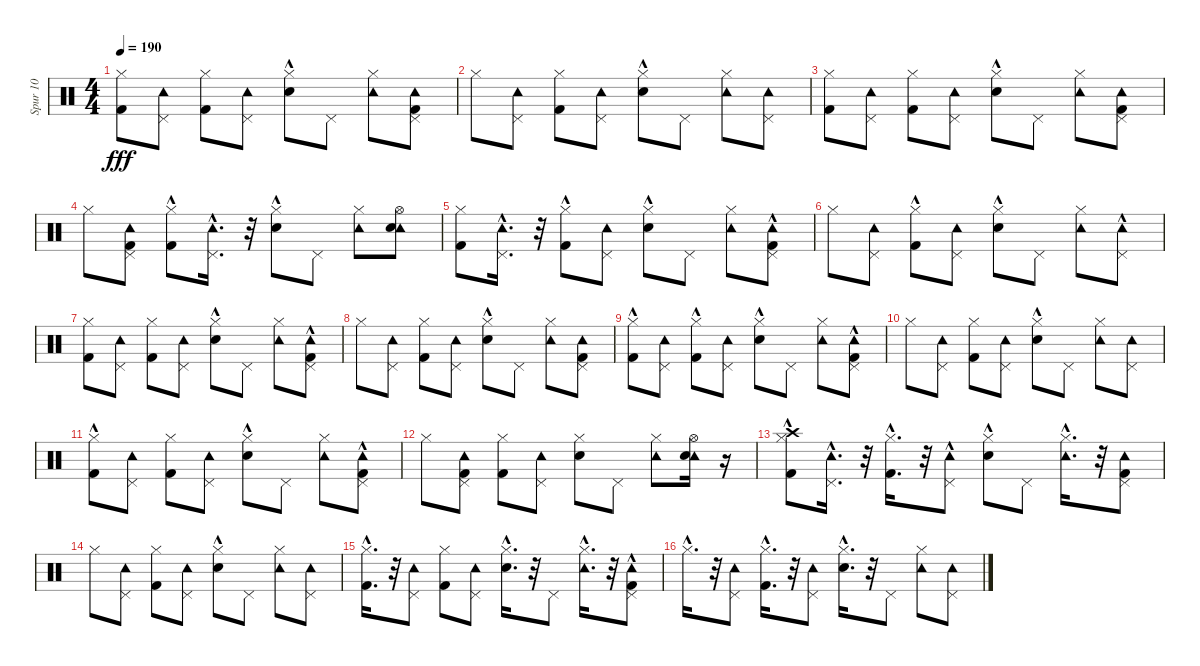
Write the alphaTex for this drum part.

\track ("Spur 10" "Spur 10") {instrument percussion}
\staff {score}
\articulation defaults
\ts (4 4)
\tempo 190
\clef neutral
\ks c
("Hi-Hat (closed)" "Kick (hit) 2").8{dy fff} ("Pedal Hi-Hat (hit)" "Tambourine (hit)").8 ("Hi-Hat (closed)" "Kick (hit) 2").8 ("Tambourine (hit)" "Pedal Hi-Hat (hit)").8 ("Hi-Hat (closed)" "Electric Snare (hit)"{hac}).8 "Pedal Hi-Hat (hit)".8 ("Tambourine (hit)" "Hi-Hat (closed)").8 ("Tambourine (hit)" "Pedal Hi-Hat (hit)" "Kick (hit) 2").8 |
"Hi-Hat (closed)".8 ("Tambourine (hit)" "Pedal Hi-Hat (hit)").8 ("Kick (hit) 2" "Hi-Hat (closed)").8 ("Pedal Hi-Hat (hit)" "Tambourine (hit)").8 ("Hi-Hat (closed)" "Electric Snare (hit)"{hac}).8 "Pedal Hi-Hat (hit)".8 ("Tambourine (hit)" "Hi-Hat (closed)").8 ("Tambourine (hit)" "Pedal Hi-Hat (hit)").8 |
("Hi-Hat (closed)" "Kick (hit) 2").8 ("Pedal Hi-Hat (hit)" "Tambourine (hit)").8 ("Kick (hit) 2" "Hi-Hat (closed)").8 ("Tambourine (hit)" "Pedal Hi-Hat (hit)").8 ("Hi-Hat (closed)" "Electric Snare (hit)"{hac}).8 "Pedal Hi-Hat (hit)".8 ("Tambourine (hit)" "Hi-Hat (closed)").8 ("Tambourine (hit)" "Pedal Hi-Hat (hit)" "Kick (hit) 2").8 |
"Hi-Hat (closed)".8 ("Tambourine (hit)" "Pedal Hi-Hat (hit)" "Kick (hit) 2").8 ("Hi-Hat (closed)" "Kick (hit) 2"{hac}).8 ("Pedal Hi-Hat (hit)"{hac} "Tambourine (hit)").16{d} r.32 ("Hi-Hat (closed)" "Electric Snare (hit)"{hac}).8 "Pedal Hi-Hat (hit)".8 ("Tambourine (hit)" "Hi-Hat (closed)").8 ("Tambourine (hit)" "Hi-Hat (open)" "Electric Snare (hit)").8 |
("Hi-Hat (closed)" "Kick (hit) 2").8 ("Tambourine (hit)" "Pedal Hi-Hat (hit)"{hac}).16{d} r.32 ("Kick (hit) 2"{hac} "Hi-Hat (closed)").8 ("Tambourine (hit)" "Pedal Hi-Hat (hit)").8 ("Hi-Hat (closed)" "Electric Snare (hit)"{hac}).8 "Pedal Hi-Hat (hit)".8 ("Tambourine (hit)" "Hi-Hat (closed)").8 ("Tambourine (hit)" "Pedal Hi-Hat (hit)" "Kick (hit) 2"{hac}).8 |
"Hi-Hat (closed)".8 ("Tambourine (hit)" "Pedal Hi-Hat (hit)").8 ("Hi-Hat (closed)" "Kick (hit) 2"{hac}).8 ("Pedal Hi-Hat (hit)" "Tambourine (hit)").8 ("Hi-Hat (closed)" "Electric Snare (hit)"{hac}).8 "Pedal Hi-Hat (hit)".8 ("Tambourine (hit)" "Hi-Hat (closed)").8 ("Tambourine (hit)"{hac} "Pedal Hi-Hat (hit)").8 |
("Hi-Hat (closed)" "Kick (hit) 2").8 ("Tambourine (hit)" "Pedal Hi-Hat (hit)").8 ("Hi-Hat (closed)" "Kick (hit) 2").8 ("Tambourine (hit)" "Pedal Hi-Hat (hit)").8 ("Hi-Hat (closed)" "Electric Snare (hit)"{hac}).8 "Pedal Hi-Hat (hit)".8 ("Tambourine (hit)" "Hi-Hat (closed)").8 ("Tambourine (hit)" "Pedal Hi-Hat (hit)" "Kick (hit) 2"{hac}).8 |
"Hi-Hat (closed)".8 ("Tambourine (hit)" "Pedal Hi-Hat (hit)").8 ("Hi-Hat (closed)" "Kick (hit) 2").8 ("Tambourine (hit)" "Pedal Hi-Hat (hit)").8 ("Hi-Hat (closed)" "Electric Snare (hit)"{hac}).8 "Pedal Hi-Hat (hit)".8 ("Tambourine (hit)" "Hi-Hat (closed)").8 ("Tambourine (hit)" "Pedal Hi-Hat (hit)" "Kick (hit) 2").8 |
("Hi-Hat (closed)" "Kick (hit) 2"{hac}).8 ("Tambourine (hit)" "Pedal Hi-Hat (hit)").8 ("Hi-Hat (closed)" "Kick (hit) 2"{hac}).8 ("Pedal Hi-Hat (hit)" "Tambourine (hit)").8 ("Hi-Hat (closed)" "Electric Snare (hit)"{hac}).8 "Pedal Hi-Hat (hit)".8 ("Tambourine (hit)" "Hi-Hat (closed)").8 ("Pedal Hi-Hat (hit)" "Kick (hit) 2"{hac} "Tambourine (hit)").8 |
"Hi-Hat (closed)".8 ("Tambourine (hit)" "Pedal Hi-Hat (hit)").8 ("Hi-Hat (closed)" "Kick (hit) 2").8 ("Pedal Hi-Hat (hit)" "Tambourine (hit)").8 ("Hi-Hat (closed)" "Electric Snare (hit)"{hac}).8 "Pedal Hi-Hat (hit)".8 ("Tambourine (hit)" "Hi-Hat (closed)").8 ("Pedal Hi-Hat (hit)" "Tambourine (hit)").8 |
("Hi-Hat (closed)" "Kick (hit) 2"{hac}).8 ("Tambourine (hit)" "Pedal Hi-Hat (hit)").8 ("Hi-Hat (closed)" "Kick (hit) 2").8 ("Pedal Hi-Hat (hit)" "Tambourine (hit)").8 ("Hi-Hat (closed)" "Electric Snare (hit)"{hac}).8 "Pedal Hi-Hat (hit)".8 ("Tambourine (hit)" "Hi-Hat (closed)").8 ("Pedal Hi-Hat (hit)" "Kick (hit) 2"{hac} "Tambourine (hit)").8 |
"Hi-Hat (closed)".8 ("Tambourine (hit)" "Kick (hit) 2" "Pedal Hi-Hat (hit)").8 ("Kick (hit) 2" "Hi-Hat (closed)").8 ("Tambourine (hit)" "Pedal Hi-Hat (hit)").8 ("Electric Snare (hit)" "Hi-Hat (closed)").8 "Pedal Hi-Hat (hit)".8 ("Tambourine (hit)" "Hi-Hat (closed)").8 ("Tambourine (hit)" "Electric Snare (hit)" "Hi-Hat (open)").16 r.16 |
("Crash high (hit)"{hac} "Kick (hit) 2" "Hi-Hat (closed)").8 ("Tambourine (hit)" "Pedal Hi-Hat (hit)"{hac}).16{d} r.32 ("Hi-Hat (closed)"{hac} "Kick (hit) 2").16{d} r.32 ("Tambourine (hit)"{hac} "Pedal Hi-Hat (hit)").8 ("Hi-Hat (closed)" "Electric Snare (hit)"{hac}).8 "Pedal Hi-Hat (hit)".8 ("Tambourine (hit)" "Hi-Hat (closed)"{hac}).16{d} r.32 ("Tambourine (hit)" "Pedal Hi-Hat (hit)" "Kick (hit) 2").8 |
"Hi-Hat (closed)".8 ("Tambourine (hit)" "Pedal Hi-Hat (hit)").8 ("Hi-Hat (closed)" "Kick (hit) 2").8 ("Tambourine (hit)" "Pedal Hi-Hat (hit)").8 ("Hi-Hat (closed)" "Electric Snare (hit)"{hac}).8 "Pedal Hi-Hat (hit)".8 ("Tambourine (hit)" "Hi-Hat (closed)").8 ("Tambourine (hit)" "Pedal Hi-Hat (hit)").8 |
("Hi-Hat (closed)"{hac} "Kick (hit) 2").16{d} r.32 ("Tambourine (hit)" "Pedal Hi-Hat (hit)").8 ("Hi-Hat (closed)" "Kick (hit) 2").8 ("Tambourine (hit)" "Pedal Hi-Hat (hit)").8 ("Hi-Hat (closed)"{hac} "Electric Snare (hit)"{hac}).16{d} r.32 "Pedal Hi-Hat (hit)".8 ("Tambourine (hit)" "Hi-Hat (closed)"{hac}).16{d} r.32 ("Tambourine (hit)"{hac} "Pedal Hi-Hat (hit)" "Kick (hit) 2").8 |
"Hi-Hat (closed)"{hac}.16{d} r.32 ("Tambourine (hit)" "Pedal Hi-Hat (hit)").8 ("Kick (hit) 2" "Hi-Hat (closed)"{hac}).16{d} r.32 ("Tambourine (hit)" "Pedal Hi-Hat (hit)").8 ("Hi-Hat (closed)"{hac} "Electric Snare (hit)"{hac}).16{d} r.32 "Pedal Hi-Hat (hit)".8 ("Tambourine (hit)" "Hi-Hat (closed)").8 ("Tambourine (hit)" "Pedal Hi-Hat (hit)").8
